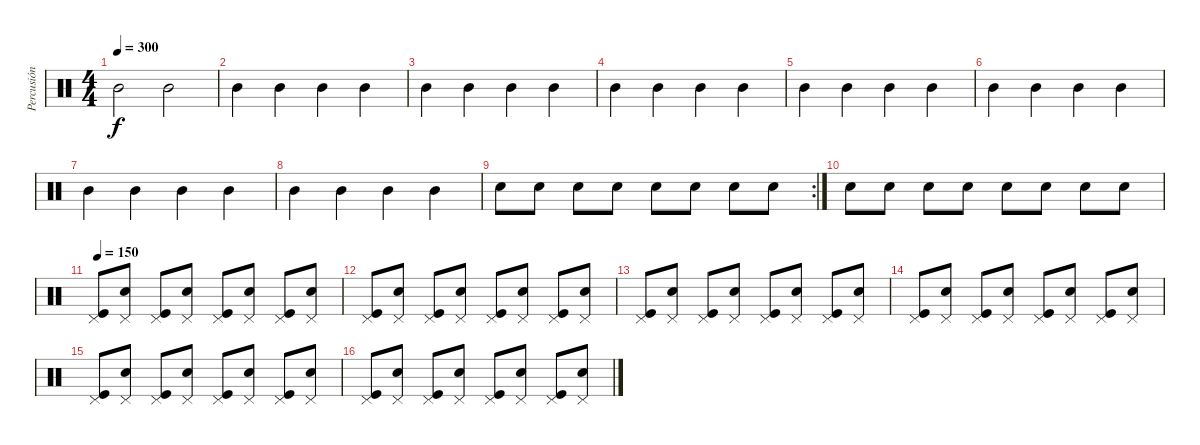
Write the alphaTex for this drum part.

\track ("Percusión" "Percusión") {instrument percussion}
\staff {score}
\articulation defaults
\ts (4 4)
\tempo 300
\clef neutral
\ks c "Mid Tom (hit)".2{dy f} "Mid Tom (hit)".2
|
"Mid Tom (hit)".4 "Mid Tom (hit)".4 "Mid Tom (hit)".4 "Mid Tom (hit)".4 |
"Mid Tom (hit)".4 "Mid Tom (hit)".4 "Mid Tom (hit)".4 "Mid Tom (hit)".4 |
"Mid Tom (hit)".4 "Mid Tom (hit)".4 "Mid Tom (hit)".4 "Mid Tom (hit)".4 |
"Mid Tom (hit)".4 "Mid Tom (hit)".4 "Mid Tom (hit)".4 "Mid Tom (hit)".4 |
"Mid Tom (hit)".4 "Mid Tom (hit)".4 "Mid Tom (hit)".4 "Mid Tom (hit)".4 |
"Mid Tom (hit)".4 "Mid Tom (hit)".4 "Mid Tom (hit)".4 "Mid Tom (hit)".4 |
"Mid Tom (hit)".4 "Mid Tom (hit)".4 "Mid Tom (hit)".4 "Mid Tom (hit)".4 |
\rc 2 "Snare (hit) 2".8 "Snare (hit) 2".8 "Snare (hit) 2".8 "Snare (hit) 2".8 "Snare (hit) 2".8 "Snare (hit) 2".8 "Snare (hit) 2".8 "Snare (hit) 2".8
|
"Snare (hit) 2".8 "Snare (hit) 2".8 "Snare (hit) 2".8 "Snare (hit) 2".8 "Snare (hit) 2".8 "Snare (hit) 2".8 "Snare (hit) 2".8 "Snare (hit) 2".8 |
\tempo 150
("Pedal Hi-Hat (hit)" "Kick (hit)").8 ("Pedal Hi-Hat (hit)" "Snare (hit) 2").8 ("Pedal Hi-Hat (hit)" "Kick (hit)").8 ("Pedal Hi-Hat (hit)" "Snare (hit) 2").8 ("Pedal Hi-Hat (hit)" "Kick (hit)").8 ("Pedal Hi-Hat (hit)" "Snare (hit) 2").8 ("Pedal Hi-Hat (hit)" "Kick (hit)").8 ("Pedal Hi-Hat (hit)" "Snare (hit) 2").8 |
("Pedal Hi-Hat (hit)" "Kick (hit)").8 ("Pedal Hi-Hat (hit)" "Snare (hit) 2").8 ("Pedal Hi-Hat (hit)" "Kick (hit)").8 ("Pedal Hi-Hat (hit)" "Snare (hit) 2").8 ("Pedal Hi-Hat (hit)" "Kick (hit)").8 ("Pedal Hi-Hat (hit)" "Snare (hit) 2").8 ("Pedal Hi-Hat (hit)" "Kick (hit)").8 ("Pedal Hi-Hat (hit)" "Snare (hit) 2").8 |
("Pedal Hi-Hat (hit)" "Kick (hit)").8 ("Pedal Hi-Hat (hit)" "Snare (hit) 2").8 ("Pedal Hi-Hat (hit)" "Kick (hit)").8 ("Pedal Hi-Hat (hit)" "Snare (hit) 2").8 ("Pedal Hi-Hat (hit)" "Kick (hit)").8 ("Pedal Hi-Hat (hit)" "Snare (hit) 2").8 ("Pedal Hi-Hat (hit)" "Kick (hit)").8 ("Pedal Hi-Hat (hit)" "Snare (hit) 2").8 |
("Pedal Hi-Hat (hit)" "Kick (hit)").8 ("Pedal Hi-Hat (hit)" "Snare (hit) 2").8 ("Pedal Hi-Hat (hit)" "Kick (hit)").8 ("Pedal Hi-Hat (hit)" "Snare (hit) 2").8 ("Pedal Hi-Hat (hit)" "Kick (hit)").8 ("Pedal Hi-Hat (hit)" "Snare (hit) 2").8 ("Pedal Hi-Hat (hit)" "Kick (hit)").8 ("Pedal Hi-Hat (hit)" "Snare (hit) 2").8 |
("Pedal Hi-Hat (hit)" "Kick (hit)").8 ("Pedal Hi-Hat (hit)" "Snare (hit) 2").8 ("Pedal Hi-Hat (hit)" "Kick (hit)").8 ("Pedal Hi-Hat (hit)" "Snare (hit) 2").8 ("Pedal Hi-Hat (hit)" "Kick (hit)").8 ("Pedal Hi-Hat (hit)" "Snare (hit) 2").8 ("Pedal Hi-Hat (hit)" "Kick (hit)").8 ("Pedal Hi-Hat (hit)" "Snare (hit) 2").8 |
("Pedal Hi-Hat (hit)" "Kick (hit)").8 ("Pedal Hi-Hat (hit)" "Snare (hit) 2").8 ("Pedal Hi-Hat (hit)" "Kick (hit)").8 ("Pedal Hi-Hat (hit)" "Snare (hit) 2").8 ("Pedal Hi-Hat (hit)" "Kick (hit)").8 ("Pedal Hi-Hat (hit)" "Snare (hit) 2").8 ("Pedal Hi-Hat (hit)" "Kick (hit)").8 ("Pedal Hi-Hat (hit)" "Snare (hit) 2").8
